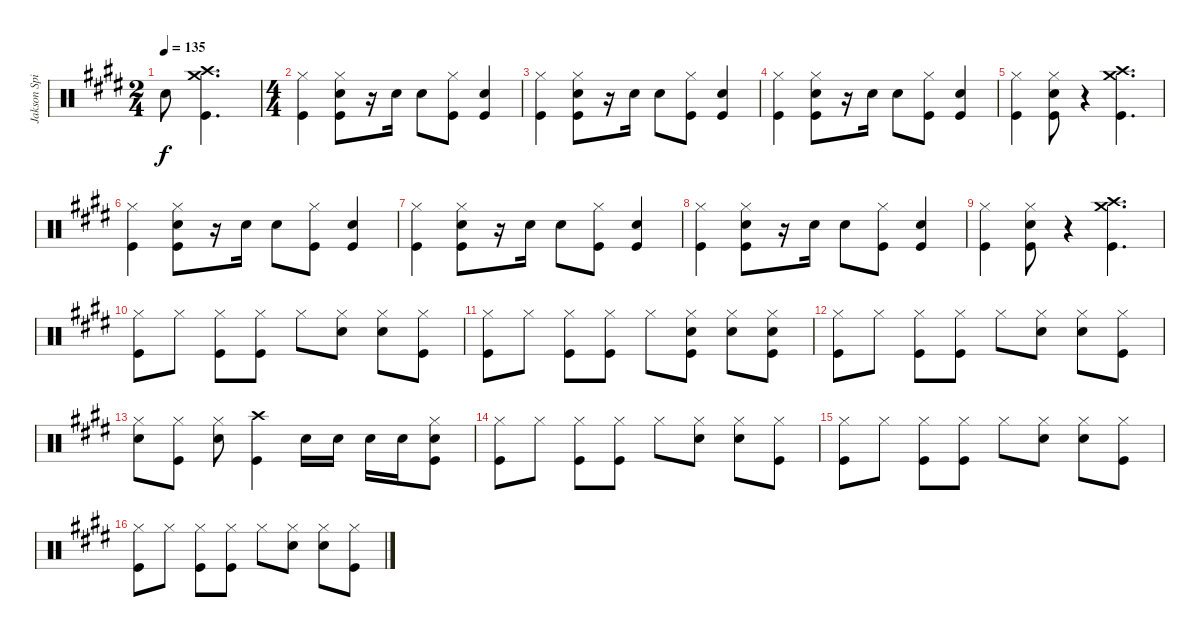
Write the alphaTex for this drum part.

\track ("Jakson Spires Drums" "Jakson Spi") {instrument percussion}
\staff {score}
\articulation defaults
\ts (2 4)
\tempo 135
\clef neutral
\ks e "Snare (hit) 2".8{dy f}
("Crash high (hit)" "Crash medium (hit)" "Kick (hit)").4{d} |
\ts (4 4)
("Hi-Hat (closed)" "Kick (hit)").4 ("Hi-Hat (closed)" "Snare (hit) 2" "Kick (hit)").8 r.16 "Snare (hit) 2".16 "Snare (hit) 2".8 ("Hi-Hat (closed)" "Kick (hit)").8 ("Snare (hit) 2" "Kick (hit)").4 |
("Hi-Hat (closed)" "Kick (hit)").4 ("Hi-Hat (closed)" "Snare (hit) 2" "Kick (hit)").8 r.16 "Snare (hit) 2".16 "Snare (hit) 2".8 ("Hi-Hat (closed)" "Kick (hit)").8 ("Snare (hit) 2" "Kick (hit)").4 |
("Hi-Hat (closed)" "Kick (hit)").4 ("Hi-Hat (closed)" "Snare (hit) 2" "Kick (hit)").8 r.16 "Snare (hit) 2".16 "Snare (hit) 2".8 ("Hi-Hat (closed)" "Kick (hit)").8 ("Snare (hit) 2" "Kick (hit)").4 |
("Hi-Hat (closed)" "Kick (hit)").4 ("Hi-Hat (closed)" "Snare (hit) 2" "Kick (hit)").8 r.4 ("Crash high (hit)" "Crash medium (hit)" "Kick (hit)").4{d} |
("Hi-Hat (closed)" "Kick (hit)").4 ("Hi-Hat (closed)" "Snare (hit) 2" "Kick (hit)").8 r.16 "Snare (hit) 2".16 "Snare (hit) 2".8 ("Hi-Hat (closed)" "Kick (hit)").8 ("Snare (hit) 2" "Kick (hit)").4 |
("Hi-Hat (closed)" "Kick (hit)").4 ("Hi-Hat (closed)" "Snare (hit) 2" "Kick (hit)").8 r.16 "Snare (hit) 2".16 "Snare (hit) 2".8 ("Hi-Hat (closed)" "Kick (hit)").8 ("Snare (hit) 2" "Kick (hit)").4 |
("Hi-Hat (closed)" "Kick (hit)").4 ("Hi-Hat (closed)" "Snare (hit) 2" "Kick (hit)").8 r.16 "Snare (hit) 2".16 "Snare (hit) 2".8 ("Hi-Hat (closed)" "Kick (hit)").8 ("Snare (hit) 2" "Kick (hit)").4 |
("Hi-Hat (closed)" "Kick (hit)").4 ("Hi-Hat (closed)" "Snare (hit) 2" "Kick (hit)").8 r.4 ("Crash high (hit)" "Crash medium (hit)" "Kick (hit)").4{d} |
("Hi-Hat (closed)" "Kick (hit)").8 "Hi-Hat (closed)".8 ("Hi-Hat (closed)" "Kick (hit)").8 ("Hi-Hat (closed)" "Kick (hit)").8 "Hi-Hat (closed)".8 ("Hi-Hat (closed)" "Snare (hit) 2").8 ("Hi-Hat (closed)" "Snare (hit) 2").8 ("Hi-Hat (closed)" "Kick (hit)").8 |
("Hi-Hat (closed)" "Kick (hit)").8 "Hi-Hat (closed)".8 ("Hi-Hat (closed)" "Kick (hit)").8 ("Hi-Hat (closed)" "Kick (hit)").8 "Hi-Hat (closed)".8 ("Hi-Hat (closed)" "Snare (hit) 2" "Kick (hit)").8 ("Hi-Hat (closed)" "Snare (hit) 2").8 ("Hi-Hat (closed)" "Snare (hit) 2" "Kick (hit)").8 |
("Hi-Hat (closed)" "Kick (hit)").8 "Hi-Hat (closed)".8 ("Hi-Hat (closed)" "Kick (hit)").8 ("Hi-Hat (closed)" "Kick (hit)").8 "Hi-Hat (closed)".8 ("Hi-Hat (closed)" "Snare (hit) 2").8 ("Hi-Hat (closed)" "Snare (hit) 2").8 ("Hi-Hat (closed)" "Kick (hit)").8 |
("Hi-Hat (closed)" "Snare (hit) 2").8 ("Hi-Hat (closed)" "Kick (hit)").8 ("Hi-Hat (closed)" "Snare (hit) 2").8 ("Crash high (hit)" "Kick (hit)").4 "Snare (hit) 2".16 "Snare (hit) 2".16 "Snare (hit) 2".16 "Snare (hit) 2".16 ("Hi-Hat (closed)" "Snare (hit) 2" "Kick (hit)").8 |
("Hi-Hat (closed)" "Kick (hit)").8 "Hi-Hat (closed)".8 ("Hi-Hat (closed)" "Kick (hit)").8 ("Hi-Hat (closed)" "Kick (hit)").8 "Hi-Hat (closed)".8 ("Hi-Hat (closed)" "Snare (hit) 2").8 ("Hi-Hat (closed)" "Snare (hit) 2").8 ("Hi-Hat (closed)" "Kick (hit)").8 |
("Hi-Hat (closed)" "Kick (hit)").8 "Hi-Hat (closed)".8 ("Hi-Hat (closed)" "Kick (hit)").8 ("Hi-Hat (closed)" "Kick (hit)").8 "Hi-Hat (closed)".8 ("Hi-Hat (closed)" "Snare (hit) 2").8 ("Hi-Hat (closed)" "Snare (hit) 2").8 ("Hi-Hat (closed)" "Kick (hit)").8 |
("Hi-Hat (closed)" "Kick (hit)").8 "Hi-Hat (closed)".8 ("Hi-Hat (closed)" "Kick (hit)").8 ("Hi-Hat (closed)" "Kick (hit)").8 "Hi-Hat (closed)".8 ("Hi-Hat (closed)" "Snare (hit) 2").8 ("Hi-Hat (closed)" "Snare (hit) 2").8 ("Hi-Hat (closed)" "Kick (hit)").8
